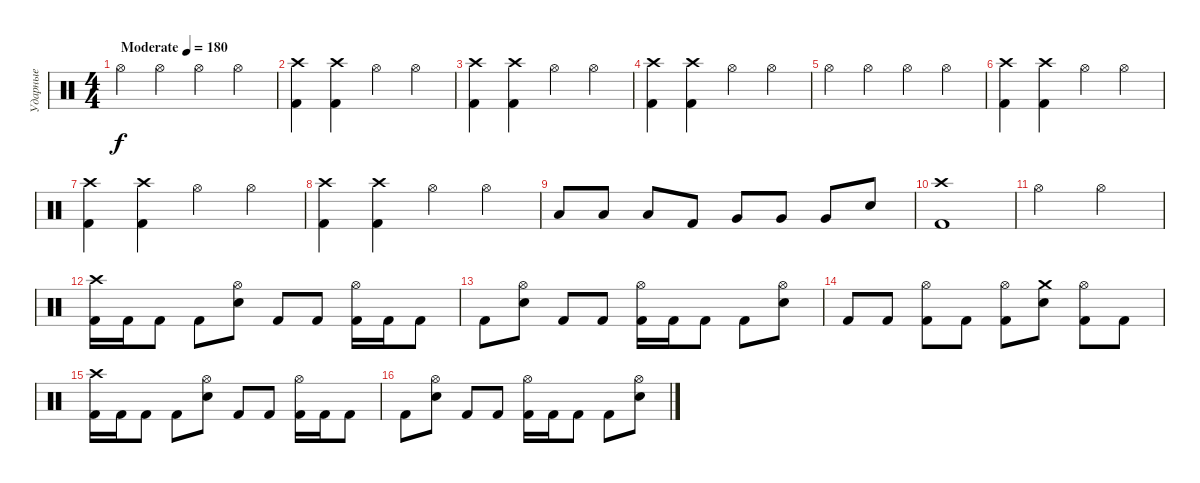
\track ("Ударные" "Ударные") {instrument percussion}
\staff {score}
\articulation defaults
\ts (4 4)
\tempo (180 "Moderate")
\clef neutral
\ks c "Hi-Hat (open)".4{dy f} "Hi-Hat (open)".4 "Hi-Hat (open)".4 "Hi-Hat (open)".4
|
("Crash high (hit)" "Kick (hit) 2").4 ("Crash high (hit)" "Kick (hit) 2").4 "Hi-Hat (open)".4 "Hi-Hat (open)".4 |
("Crash high (hit)" "Kick (hit) 2").4 ("Crash high (hit)" "Kick (hit) 2").4 "Hi-Hat (open)".4 "Hi-Hat (open)".4 |
("Crash high (hit)" "Kick (hit) 2").4 ("Crash high (hit)" "Kick (hit) 2").4 "Hi-Hat (open)".4 "Hi-Hat (open)".4 |
"Hi-Hat (open)".4 "Hi-Hat (open)".4 "Hi-Hat (open)".4 "Hi-Hat (open)".4 |
("Crash high (hit)" "Kick (hit) 2").4 ("Crash high (hit)" "Kick (hit) 2").4 "Hi-Hat (open)".4 "Hi-Hat (open)".4 |
("Crash high (hit)" "Kick (hit) 2").4 ("Crash high (hit)" "Kick (hit) 2").4 "Hi-Hat (open)".4 "Hi-Hat (open)".4 |
("Crash high (hit)" "Kick (hit) 2").4 ("Crash high (hit)" "Kick (hit) 2").4 "Hi-Hat (open)".4 "Hi-Hat (open)".4 |
"Low Tom (hit)".8 "Low Tom (hit)".8 "Low Tom (hit)".8 "Kick (hit) 2".8 "Very Low Tom (hit)".8 "Very Low Tom (hit)".8 "Very Low Tom (hit)".8 "Electric Snare (hit)".8 |
("Crash high (hit)" "Kick (hit) 2").1 |
"Hi-Hat (open)".2 "Hi-Hat (open)".2 |
("Crash high (hit)" "Kick (hit) 2").16 "Kick (hit) 2".16 "Kick (hit) 2".8 "Kick (hit) 2".8 ("Hi-Hat (open)" "Electric Snare (hit)").8 "Kick (hit) 2".8 "Kick (hit) 2".8 ("Hi-Hat (open)" "Kick (hit) 2").16 "Kick (hit) 2".16 "Kick (hit) 2".8 |
"Kick (hit) 2".8 ("Hi-Hat (open)" "Electric Snare (hit)").8 "Kick (hit) 2".8 "Kick (hit) 2".8 ("Hi-Hat (open)" "Kick (hit) 2").16 "Kick (hit) 2".16 "Kick (hit) 2".8 "Kick (hit) 2".8 ("Hi-Hat (open)" "Electric Snare (hit)").8 |
"Kick (hit) 2".8 "Kick (hit) 2".8 ("Hi-Hat (open)" "Kick (hit) 2").8 "Kick (hit) 2".8 ("Hi-Hat (open)" "Kick (hit) 2").8 ("Crash medium (hit)" "Electric Snare (hit)").8 ("Hi-Hat (open)" "Kick (hit) 2").8 "Kick (hit) 2".8 |
("Crash high (hit)" "Kick (hit) 2").16 "Kick (hit) 2".16 "Kick (hit) 2".8 "Kick (hit) 2".8 ("Hi-Hat (open)" "Electric Snare (hit)").8 "Kick (hit) 2".8 "Kick (hit) 2".8 ("Hi-Hat (open)" "Kick (hit) 2").16 "Kick (hit) 2".16 "Kick (hit) 2".8 |
"Kick (hit) 2".8 ("Hi-Hat (open)" "Electric Snare (hit)").8 "Kick (hit) 2".8 "Kick (hit) 2".8 ("Hi-Hat (open)" "Kick (hit) 2").16 "Kick (hit) 2".16 "Kick (hit) 2".8 "Kick (hit) 2".8 ("Hi-Hat (open)" "Electric Snare (hit)").8
